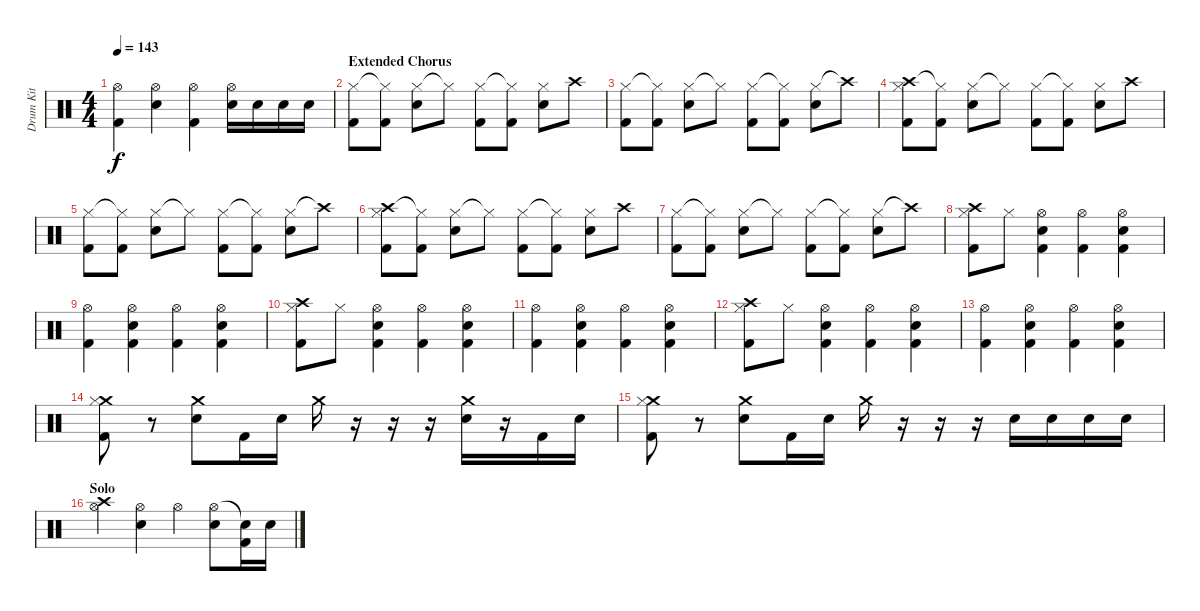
\track ("Drum Kit" "Drum Kit") {instrument percussion}
\staff {score}
\articulation defaults
\ts (4 4)
\tempo 143
\clef neutral
\ks c
("Hi-Hat (open)" "Kick (hit) 2").4{dy f} ("Hi-Hat (open)" "Snare (hit) 2").4 ("Hi-Hat (open)" "Kick (hit) 2").4 ("Hi-Hat (open)" "Snare (hit) 2").16 "Snare (hit) 2".16 "Snare (hit) 2".16 "Snare (hit) 2".16 |
\section ("" "Extended Chorus")
("Hi-Hat (closed)" "Kick (hit) 2").8 ("Hi-Hat (closed)"{t} "Kick (hit) 2").8 ("Hi-Hat (closed)" "Snare (hit) 2").8 "Hi-Hat (closed)"{t}.8 ("Hi-Hat (closed)" "Kick (hit) 2").8 ("Hi-Hat (closed)"{t} "Kick (hit) 2").8 ("Hi-Hat (closed)" "Snare (hit) 2").8 "Crash high (hit)".8 |
("Hi-Hat (closed)" "Kick (hit) 2").8 ("Hi-Hat (closed)"{t} "Kick (hit) 2").8 ("Hi-Hat (closed)" "Snare (hit) 2").8 "Hi-Hat (closed)"{t}.8 ("Hi-Hat (closed)" "Kick (hit) 2").8 ("Hi-Hat (closed)"{t} "Kick (hit) 2").8 ("Hi-Hat (closed)" "Snare (hit) 2").8 "Crash high (hit)"{t}.8 |
("Crash high (hit)" "Hi-Hat (closed)" "Kick (hit) 2").8 ("Hi-Hat (closed)"{t} "Kick (hit) 2").8 ("Hi-Hat (closed)" "Snare (hit) 2").8 "Hi-Hat (closed)"{t}.8 ("Hi-Hat (closed)" "Kick (hit) 2").8 ("Hi-Hat (closed)"{t} "Kick (hit) 2").8 ("Hi-Hat (closed)" "Snare (hit) 2").8 "Crash high (hit)".8 |
("Hi-Hat (closed)" "Kick (hit) 2").8 ("Hi-Hat (closed)"{t} "Kick (hit) 2").8 ("Hi-Hat (closed)" "Snare (hit) 2").8 "Hi-Hat (closed)"{t}.8 ("Hi-Hat (closed)" "Kick (hit) 2").8 ("Hi-Hat (closed)"{t} "Kick (hit) 2").8 ("Hi-Hat (closed)" "Snare (hit) 2").8 "Crash high (hit)"{t}.8 |
("Crash high (hit)" "Hi-Hat (closed)" "Kick (hit) 2").8 ("Hi-Hat (closed)"{t} "Kick (hit) 2").8 ("Hi-Hat (closed)" "Snare (hit) 2").8 "Hi-Hat (closed)"{t}.8 ("Hi-Hat (closed)" "Kick (hit) 2").8 ("Hi-Hat (closed)"{t} "Kick (hit) 2").8 ("Hi-Hat (closed)" "Snare (hit) 2").8 "Crash high (hit)".8 |
("Hi-Hat (closed)" "Kick (hit) 2").8 ("Hi-Hat (closed)"{t} "Kick (hit) 2").8 ("Hi-Hat (closed)" "Snare (hit) 2").8 "Hi-Hat (closed)"{t}.8 ("Hi-Hat (closed)" "Kick (hit) 2").8 ("Hi-Hat (closed)"{t} "Kick (hit) 2").8 ("Hi-Hat (closed)" "Snare (hit) 2").8 "Crash high (hit)"{t}.8 |
("Crash high (hit)" "Hi-Hat (closed)" "Kick (hit) 2").8 "Hi-Hat (closed)".8 ("Snare (hit) 2" "Hi-Hat (open)" "Kick (hit) 2").4 ("Hi-Hat (open)" "Kick (hit) 2").4 ("Hi-Hat (open)" "Snare (hit) 2" "Kick (hit) 2").4 |
("Hi-Hat (open)" "Kick (hit) 2").4 ("Hi-Hat (open)" "Snare (hit) 2" "Kick (hit) 2").4 ("Hi-Hat (open)" "Kick (hit) 2").4 ("Hi-Hat (open)" "Snare (hit) 2" "Kick (hit) 2").4 |
("Crash high (hit)" "Hi-Hat (closed)" "Kick (hit) 2").8 "Hi-Hat (closed)".8 ("Snare (hit) 2" "Hi-Hat (open)" "Kick (hit) 2").4 ("Hi-Hat (open)" "Kick (hit) 2").4 ("Hi-Hat (open)" "Snare (hit) 2" "Kick (hit) 2").4 |
("Hi-Hat (open)" "Kick (hit) 2").4 ("Hi-Hat (open)" "Snare (hit) 2" "Kick (hit) 2").4 ("Hi-Hat (open)" "Kick (hit) 2").4 ("Hi-Hat (open)" "Snare (hit) 2" "Kick (hit) 2").4 |
("Crash high (hit)" "Hi-Hat (closed)" "Kick (hit) 2").8 "Hi-Hat (closed)".8 ("Snare (hit) 2" "Hi-Hat (open)" "Kick (hit) 2").4 ("Hi-Hat (open)" "Kick (hit) 2").4 ("Hi-Hat (open)" "Snare (hit) 2" "Kick (hit) 2").4 |
("Hi-Hat (open)" "Kick (hit) 2").4 ("Hi-Hat (open)" "Snare (hit) 2" "Kick (hit) 2").4 ("Hi-Hat (open)" "Kick (hit) 2").4 ("Hi-Hat (open)" "Snare (hit) 2" "Kick (hit) 2").4 |
("Crash medium (hit)" "Hi-Hat (closed)" "Kick (hit) 2").8 r.8 ("Crash medium (hit)" "Snare (hit) 2").8 "Kick (hit) 2".16 "Snare (hit) 2".16 "Crash medium (hit)".16 r.16 r.16 r.16 ("Crash medium (hit)" "Snare (hit) 2").16 r.16 "Kick (hit) 2".16 "Snare (hit) 2".16 |
("Crash medium (hit)" "Hi-Hat (closed)" "Kick (hit) 2").8 r.8 ("Crash medium (hit)" "Snare (hit) 2").8 "Kick (hit) 2".16 "Snare (hit) 2".16 "Crash medium (hit)".16 r.16 r.16 r.16 "Snare (hit) 2".16 "Snare (hit) 2".16 "Snare (hit) 2".16 "Snare (hit) 2".16 |
\section ("" "Solo")
("Crash high (hit)" "Hi-Hat (open)").4 ("Hi-Hat (open)" "Snare (hit) 2").4 "Hi-Hat (open)".4 ("Hi-Hat (open)" "Snare (hit) 2").8 ("Snare (hit)"{t} "Kick (hit) 2").16 "Snare (hit) 2".16
